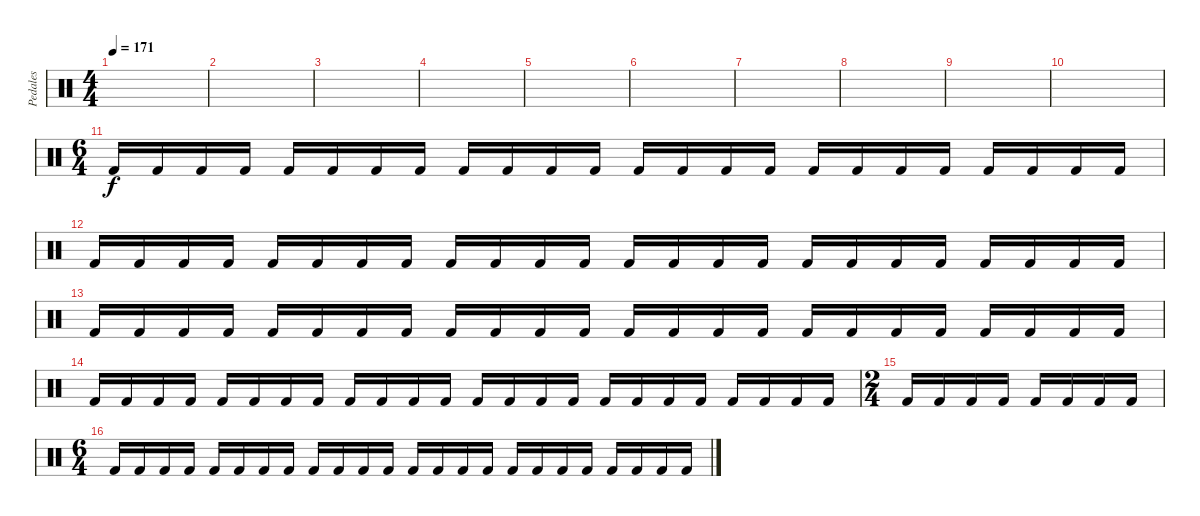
\track ("Pedales" "Pedales") {instrument percussion}
\staff {score}
\articulation defaults
\ts (4 4)
\tempo 171
\clef neutral
\ks c
|
|
|
|
|
|
|
|
|
|
\ts (6 4)
"Kick (hit) 2".16 "Kick (hit) 2".16 "Kick (hit) 2".16 "Kick (hit) 2".16 "Kick (hit) 2".16 "Kick (hit) 2".16 "Kick (hit) 2".16 "Kick (hit) 2".16 "Kick (hit) 2".16 "Kick (hit) 2".16 "Kick (hit) 2".16 "Kick (hit) 2".16 "Kick (hit) 2".16 "Kick (hit) 2".16 "Kick (hit) 2".16 "Kick (hit) 2".16 "Kick (hit) 2".16 "Kick (hit) 2".16 "Kick (hit) 2".16 "Kick (hit) 2".16 "Kick (hit) 2".16 "Kick (hit) 2".16 "Kick (hit) 2".16 "Kick (hit) 2".16 |
"Kick (hit) 2".16 "Kick (hit) 2".16 "Kick (hit) 2".16 "Kick (hit) 2".16 "Kick (hit) 2".16 "Kick (hit) 2".16 "Kick (hit) 2".16 "Kick (hit) 2".16 "Kick (hit) 2".16 "Kick (hit) 2".16 "Kick (hit) 2".16 "Kick (hit) 2".16 "Kick (hit) 2".16 "Kick (hit) 2".16 "Kick (hit) 2".16 "Kick (hit) 2".16 "Kick (hit) 2".16 "Kick (hit) 2".16 "Kick (hit) 2".16 "Kick (hit) 2".16 "Kick (hit) 2".16 "Kick (hit) 2".16 "Kick (hit) 2".16 "Kick (hit) 2".16 |
"Kick (hit) 2".16 "Kick (hit) 2".16 "Kick (hit) 2".16 "Kick (hit) 2".16 "Kick (hit) 2".16 "Kick (hit) 2".16 "Kick (hit) 2".16 "Kick (hit) 2".16 "Kick (hit) 2".16 "Kick (hit) 2".16 "Kick (hit) 2".16 "Kick (hit) 2".16 "Kick (hit) 2".16 "Kick (hit) 2".16 "Kick (hit) 2".16 "Kick (hit) 2".16 "Kick (hit) 2".16 "Kick (hit) 2".16 "Kick (hit) 2".16 "Kick (hit) 2".16 "Kick (hit) 2".16 "Kick (hit) 2".16 "Kick (hit) 2".16 "Kick (hit) 2".16 |
"Kick (hit) 2".16 "Kick (hit) 2".16 "Kick (hit) 2".16 "Kick (hit) 2".16 "Kick (hit) 2".16 "Kick (hit) 2".16 "Kick (hit) 2".16 "Kick (hit) 2".16 "Kick (hit) 2".16 "Kick (hit) 2".16 "Kick (hit) 2".16 "Kick (hit) 2".16 "Kick (hit) 2".16 "Kick (hit) 2".16 "Kick (hit) 2".16 "Kick (hit) 2".16 "Kick (hit) 2".16 "Kick (hit) 2".16 "Kick (hit) 2".16 "Kick (hit) 2".16 "Kick (hit) 2".16 "Kick (hit) 2".16 "Kick (hit) 2".16 "Kick (hit) 2".16 |
\ts (2 4)
"Kick (hit) 2".16 "Kick (hit) 2".16 "Kick (hit) 2".16 "Kick (hit) 2".16 "Kick (hit) 2".16 "Kick (hit) 2".16 "Kick (hit) 2".16 "Kick (hit) 2".16 |
\ts (6 4)
"Kick (hit) 2".16 "Kick (hit) 2".16 "Kick (hit) 2".16 "Kick (hit) 2".16 "Kick (hit) 2".16 "Kick (hit) 2".16 "Kick (hit) 2".16 "Kick (hit) 2".16 "Kick (hit) 2".16 "Kick (hit) 2".16 "Kick (hit) 2".16 "Kick (hit) 2".16 "Kick (hit) 2".16 "Kick (hit) 2".16 "Kick (hit) 2".16 "Kick (hit) 2".16 "Kick (hit) 2".16 "Kick (hit) 2".16 "Kick (hit) 2".16 "Kick (hit) 2".16 "Kick (hit) 2".16 "Kick (hit) 2".16 "Kick (hit) 2".16 "Kick (hit) 2".16
